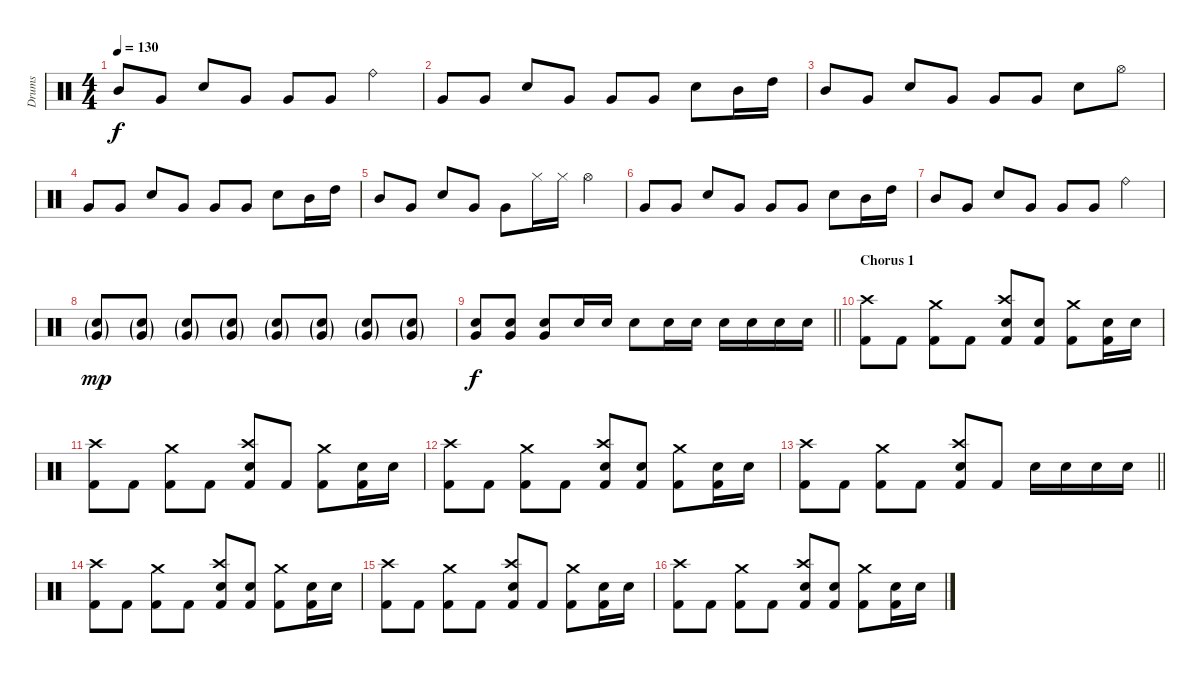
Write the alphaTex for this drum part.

\track ("Drums" "Drums") {instrument percussion}
\staff {score}
\articulation defaults
\ts (4 4)
\tempo 130
\clef neutral
\ks c "Mid Tom (hit)".8{dy f} "Very Low Tom (hit)".8 "Electric Snare (hit)".8 "Very Low Tom (hit)".8 "Very Low Tom (hit)".8 "Very Low Tom (hit)".8 "Ride (bell)".4
|
"Very Low Tom (hit)".8 "Very Low Tom (hit)".8 "Electric Snare (hit)".8 "Very Low Tom (hit)".8 "Very Low Tom (hit)".8 "Very Low Tom (hit)".8 "Electric Snare (hit)".8 "Mid Tom (hit)".16 "High Tom (hit)".16 |
"Mid Tom (hit)".8 "Very Low Tom (hit)".8 "Electric Snare (hit)".8 "Very Low Tom (hit)".8 "Very Low Tom (hit)".8 "Very Low Tom (hit)".8 "Electric Snare (hit)".8 "Hi-Hat (open)".8 |
"Very Low Tom (hit)".8 "Very Low Tom (hit)".8 "Electric Snare (hit)".8 "Very Low Tom (hit)".8 "Very Low Tom (hit)".8 "Very Low Tom (hit)".8 "Electric Snare (hit)".8 "Mid Tom (hit)".16 "High Tom (hit)".16 |
"Mid Tom (hit)".8 "Very Low Tom (hit)".8 "Electric Snare (hit)".8 "Very Low Tom (hit)".8 "Very Low Tom (hit)".8 "Hi-Hat (closed)".16 "Hi-Hat (closed)".16 "Hi-Hat (open)".4 |
"Very Low Tom (hit)".8 "Very Low Tom (hit)".8 "Electric Snare (hit)".8 "Very Low Tom (hit)".8 "Very Low Tom (hit)".8 "Very Low Tom (hit)".8 "Electric Snare (hit)".8 "Mid Tom (hit)".16 "High Tom (hit)".16 |
"Mid Tom (hit)".8 "Very Low Tom (hit)".8 "Electric Snare (hit)".8 "Very Low Tom (hit)".8 "Very Low Tom (hit)".8 "Very Low Tom (hit)".8 "Ride (bell)".4 |
("Electric Snare (hit)"{g} "Very Low Tom (hit)"{g}).8{dy mp} ("Electric Snare (hit)"{g} "Very Low Tom (hit)"{g}).8 ("Electric Snare (hit)"{g} "Very Low Tom (hit)"{g}).8 ("Electric Snare (hit)"{g} "Very Low Tom (hit)"{g}).8 ("Electric Snare (hit)"{g} "Very Low Tom (hit)"{g}).8 ("Electric Snare (hit)"{g} "Very Low Tom (hit)"{g}).8 ("Electric Snare (hit)"{g} "Very Low Tom (hit)"{g}).8 ("Electric Snare (hit)"{g} "Very Low Tom (hit)"{g}).8 |
\barLineRight lightlight
("Electric Snare (hit)" "Very Low Tom (hit)").8{dy f} ("Electric Snare (hit)" "Very Low Tom (hit)").8 ("Electric Snare (hit)" "Very Low Tom (hit)").8 "Electric Snare (hit)".16 "Electric Snare (hit)".16 "Electric Snare (hit)".8 "Electric Snare (hit)".16 "Electric Snare (hit)".16 "Electric Snare (hit)".16 "Electric Snare (hit)".16 "Electric Snare (hit)".16 "Electric Snare (hit)".16 |
\section ("" "Chorus 1")
("Crash high (hit)" "Kick (hit) 2").8 "Kick (hit) 2".8 ("Crash medium (hit)" "Kick (hit) 2").8 "Kick (hit) 2".8 ("Crash high (hit)" "Electric Snare (hit)" "Kick (hit) 2").8 ("Electric Snare (hit)" "Kick (hit) 2").8 ("Crash medium (hit)" "Kick (hit) 2").8 ("Electric Snare (hit)" "Kick (hit) 2").16 "Electric Snare (hit)".16 |
("Crash high (hit)" "Kick (hit) 2").8 "Kick (hit) 2".8 ("Crash medium (hit)" "Kick (hit) 2").8 "Kick (hit) 2".8 ("Crash high (hit)" "Electric Snare (hit)" "Kick (hit) 2").8 "Kick (hit) 2".8 ("Crash medium (hit)" "Kick (hit) 2").8 ("Electric Snare (hit)" "Kick (hit) 2").16 "Electric Snare (hit)".16 |
("Crash high (hit)" "Kick (hit) 2").8 "Kick (hit) 2".8 ("Crash medium (hit)" "Kick (hit) 2").8 "Kick (hit) 2".8 ("Crash high (hit)" "Electric Snare (hit)" "Kick (hit) 2").8 ("Electric Snare (hit)" "Kick (hit) 2").8 ("Crash medium (hit)" "Kick (hit) 2").8 ("Electric Snare (hit)" "Kick (hit) 2").16 "Electric Snare (hit)".16 |
\barLineRight lightlight
("Crash high (hit)" "Kick (hit) 2").8 "Kick (hit) 2".8 ("Crash medium (hit)" "Kick (hit) 2").8 "Kick (hit) 2".8 ("Crash high (hit)" "Electric Snare (hit)" "Kick (hit) 2").8 "Kick (hit) 2".8 "Electric Snare (hit)".16 "Electric Snare (hit)".16 "Electric Snare (hit)".16 "Electric Snare (hit)".16 |
("Crash high (hit)" "Kick (hit) 2").8 "Kick (hit) 2".8 ("Crash medium (hit)" "Kick (hit) 2").8 "Kick (hit) 2".8 ("Crash high (hit)" "Electric Snare (hit)" "Kick (hit) 2").8 ("Electric Snare (hit)" "Kick (hit) 2").8 ("Crash medium (hit)" "Kick (hit) 2").8 ("Electric Snare (hit)" "Kick (hit) 2").16 "Electric Snare (hit)".16 |
("Crash high (hit)" "Kick (hit) 2").8 "Kick (hit) 2".8 ("Crash medium (hit)" "Kick (hit) 2").8 "Kick (hit) 2".8 ("Crash high (hit)" "Electric Snare (hit)" "Kick (hit) 2").8 "Kick (hit) 2".8 ("Crash medium (hit)" "Kick (hit) 2").8 ("Electric Snare (hit)" "Kick (hit) 2").16 "Electric Snare (hit)".16 |
("Crash high (hit)" "Kick (hit) 2").8 "Kick (hit) 2".8 ("Crash medium (hit)" "Kick (hit) 2").8 "Kick (hit) 2".8 ("Crash high (hit)" "Electric Snare (hit)" "Kick (hit) 2").8 ("Electric Snare (hit)" "Kick (hit) 2").8 ("Crash medium (hit)" "Kick (hit) 2").8 ("Electric Snare (hit)" "Kick (hit) 2").16 "Electric Snare (hit)".16
